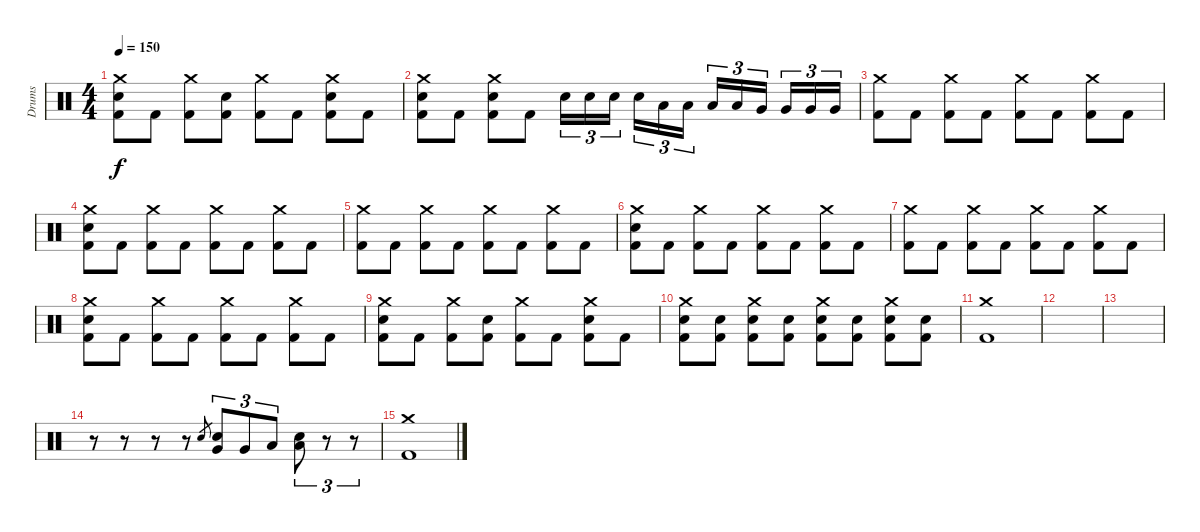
\track ("Drums" "Drums") {instrument percussion}
\staff {score}
\articulation defaults
\ts (4 4)
\tempo 150
\clef neutral
\ks c
("Crash medium (hit)" "Electric Snare (hit)" "Kick (hit) 2").8{dy f} "Kick (hit) 2".8 ("Crash medium (hit)" "Kick (hit) 2").8 ("Electric Snare (hit)" "Kick (hit) 2").8 ("Crash medium (hit)" "Kick (hit) 2").8 "Kick (hit) 2".8 ("Crash medium (hit)" "Electric Snare (hit)" "Kick (hit) 2").8 "Kick (hit) 2".8 |
("Crash medium (hit)" "Electric Snare (hit)" "Kick (hit) 2").8 "Kick (hit) 2".8 ("Crash medium (hit)" "Electric Snare (hit)" "Kick (hit) 2").8 "Kick (hit) 2".8 "Electric Snare (hit)".16{tu (3 2)} "Electric Snare (hit)".16{tu (3 2)} "Electric Snare (hit)".16{tu (3 2) beam splitsecondary} "Electric Snare (hit)".16{tu (3 2)} "Low Tom (hit)".16{tu (3 2)} "Low Tom (hit)".16{tu (3 2)} "Low Tom (hit)".16{tu (3 2)} "Low Tom (hit)".16{tu (3 2)} "Very Low Tom (hit)".16{tu (3 2) beam splitsecondary} "Very Low Tom (hit)".16{tu (3 2)} "Very Low Tom (hit)".16{tu (3 2)} "Very Low Tom (hit)".16{tu (3 2)} |
("Crash medium (hit)" "Kick (hit) 2").8 "Kick (hit) 2".8 ("Crash medium (hit)" "Kick (hit) 2").8 "Kick (hit) 2".8 ("Crash medium (hit)" "Kick (hit) 2").8 "Kick (hit) 2".8 ("Crash medium (hit)" "Kick (hit) 2").8 "Kick (hit) 2".8 |
("Crash medium (hit)" "Electric Snare (hit)" "Kick (hit) 2").8 "Kick (hit) 2".8 ("Crash medium (hit)" "Kick (hit) 2").8 "Kick (hit) 2".8 ("Crash medium (hit)" "Kick (hit) 2").8 "Kick (hit) 2".8 ("Crash medium (hit)" "Kick (hit) 2").8 "Kick (hit) 2".8 |
("Crash medium (hit)" "Kick (hit) 2").8 "Kick (hit) 2".8 ("Crash medium (hit)" "Kick (hit) 2").8 "Kick (hit) 2".8 ("Crash medium (hit)" "Kick (hit) 2").8 "Kick (hit) 2".8 ("Crash medium (hit)" "Kick (hit) 2").8 "Kick (hit) 2".8 |
("Crash medium (hit)" "Electric Snare (hit)" "Kick (hit) 2").8 "Kick (hit) 2".8 ("Crash medium (hit)" "Kick (hit) 2").8 "Kick (hit) 2".8 ("Crash medium (hit)" "Kick (hit) 2").8 "Kick (hit) 2".8 ("Crash medium (hit)" "Kick (hit) 2").8 "Kick (hit) 2".8 |
("Crash medium (hit)" "Kick (hit) 2").8 "Kick (hit) 2".8 ("Crash medium (hit)" "Kick (hit) 2").8 "Kick (hit) 2".8 ("Crash medium (hit)" "Kick (hit) 2").8 "Kick (hit) 2".8 ("Crash medium (hit)" "Kick (hit) 2").8 "Kick (hit) 2".8 |
("Crash medium (hit)" "Electric Snare (hit)" "Kick (hit) 2").8 "Kick (hit) 2".8 ("Crash medium (hit)" "Kick (hit) 2").8 "Kick (hit) 2".8 ("Crash medium (hit)" "Kick (hit) 2").8 "Kick (hit) 2".8 ("Crash medium (hit)" "Kick (hit) 2").8 "Kick (hit) 2".8 |
("Crash medium (hit)" "Electric Snare (hit)" "Kick (hit) 2").8 "Kick (hit) 2".8 ("Crash medium (hit)" "Kick (hit) 2").8 ("Electric Snare (hit)" "Kick (hit) 2").8 ("Crash medium (hit)" "Kick (hit) 2").8 "Kick (hit) 2".8 ("Crash medium (hit)" "Electric Snare (hit)" "Kick (hit) 2").8 "Kick (hit) 2".8 |
("Crash medium (hit)" "Electric Snare (hit)" "Kick (hit) 2").8 ("Electric Snare (hit)" "Kick (hit) 2").8 ("Crash medium (hit)" "Electric Snare (hit)" "Kick (hit) 2").8 ("Electric Snare (hit)" "Kick (hit) 2").8 ("Crash medium (hit)" "Electric Snare (hit)" "Kick (hit) 2").8 ("Electric Snare (hit)" "Kick (hit) 2").8 ("Crash medium (hit)" "Electric Snare (hit)" "Kick (hit) 2").8 ("Electric Snare (hit)" "Kick (hit) 2").8 |
("Crash medium (hit)" "Kick (hit) 2").1 |
|
|
r.8 r.8 r.8 r.8 "Electric Snare (hit)".8{gr} ("Electric Snare (hit)" "Very Low Tom (hit)").8{tu (3 2)} "Very Low Tom (hit)".8{tu (3 2)} "Low Floor Tom (hit)".8{tu (3 2)} ("Electric Snare (hit)" "Low Floor Tom (hit)").8{tu (3 2)} r.8{tu (3 2)} r.8{tu (3 2)} |
("Crash medium (hit)" "Kick (hit) 2").1
